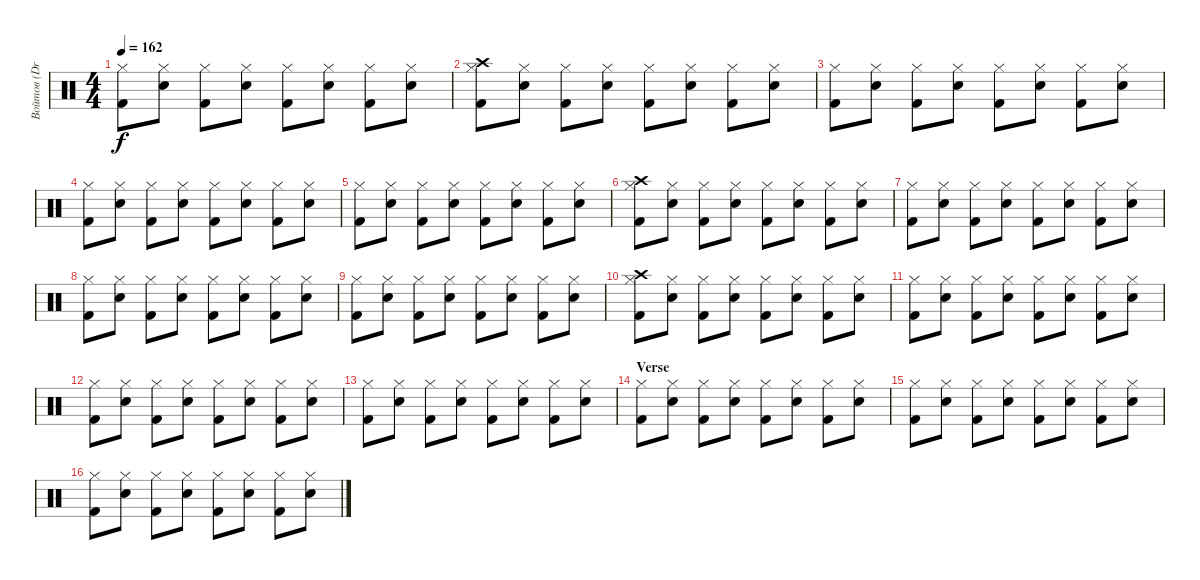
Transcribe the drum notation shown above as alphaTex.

\track ("Войтов (Drums)" "Войтов (Dr") {instrument percussion}
\staff {score}
\articulation defaults
\ts (4 4)
\tempo 162
\clef neutral
\ks c
("Hi-Hat (closed)" "Kick (hit) 2").8{dy f} ("Hi-Hat (closed)" "Electric Snare (hit)").8 ("Hi-Hat (closed)" "Kick (hit) 2").8 ("Hi-Hat (closed)" "Electric Snare (hit)").8 ("Hi-Hat (closed)" "Kick (hit) 2").8 ("Hi-Hat (closed)" "Electric Snare (hit)").8 ("Hi-Hat (closed)" "Kick (hit) 2").8 ("Hi-Hat (closed)" "Electric Snare (hit)").8 |
("Hi-Hat (closed)" "Kick (hit) 2" "Crash high (hit)").8 ("Hi-Hat (closed)" "Electric Snare (hit)").8 ("Hi-Hat (closed)" "Kick (hit) 2").8 ("Hi-Hat (closed)" "Electric Snare (hit)").8 ("Hi-Hat (closed)" "Kick (hit) 2").8 ("Hi-Hat (closed)" "Electric Snare (hit)").8 ("Hi-Hat (closed)" "Kick (hit) 2").8 ("Hi-Hat (closed)" "Electric Snare (hit)").8 |
("Hi-Hat (closed)" "Kick (hit) 2").8 ("Hi-Hat (closed)" "Electric Snare (hit)").8 ("Hi-Hat (closed)" "Kick (hit) 2").8 ("Hi-Hat (closed)" "Electric Snare (hit)").8 ("Hi-Hat (closed)" "Kick (hit) 2").8 ("Hi-Hat (closed)" "Electric Snare (hit)").8 ("Hi-Hat (closed)" "Kick (hit) 2").8 ("Hi-Hat (closed)" "Electric Snare (hit)").8 |
("Hi-Hat (closed)" "Kick (hit) 2").8 ("Hi-Hat (closed)" "Electric Snare (hit)").8 ("Hi-Hat (closed)" "Kick (hit) 2").8 ("Hi-Hat (closed)" "Electric Snare (hit)").8 ("Hi-Hat (closed)" "Kick (hit) 2").8 ("Hi-Hat (closed)" "Electric Snare (hit)").8 ("Hi-Hat (closed)" "Kick (hit) 2").8 ("Hi-Hat (closed)" "Electric Snare (hit)").8 |
("Hi-Hat (closed)" "Kick (hit) 2").8 ("Hi-Hat (closed)" "Electric Snare (hit)").8 ("Hi-Hat (closed)" "Kick (hit) 2").8 ("Hi-Hat (closed)" "Electric Snare (hit)").8 ("Hi-Hat (closed)" "Kick (hit) 2").8 ("Hi-Hat (closed)" "Electric Snare (hit)").8 ("Hi-Hat (closed)" "Kick (hit) 2").8 ("Hi-Hat (closed)" "Electric Snare (hit)").8 |
("Hi-Hat (closed)" "Kick (hit) 2" "Crash high (hit)").8 ("Hi-Hat (closed)" "Electric Snare (hit)").8 ("Hi-Hat (closed)" "Kick (hit) 2").8 ("Hi-Hat (closed)" "Electric Snare (hit)").8 ("Hi-Hat (closed)" "Kick (hit) 2").8 ("Hi-Hat (closed)" "Electric Snare (hit)").8 ("Hi-Hat (closed)" "Kick (hit) 2").8 ("Hi-Hat (closed)" "Electric Snare (hit)").8 |
("Hi-Hat (closed)" "Kick (hit) 2").8 ("Hi-Hat (closed)" "Electric Snare (hit)").8 ("Hi-Hat (closed)" "Kick (hit) 2").8 ("Hi-Hat (closed)" "Electric Snare (hit)").8 ("Hi-Hat (closed)" "Kick (hit) 2").8 ("Hi-Hat (closed)" "Electric Snare (hit)").8 ("Hi-Hat (closed)" "Kick (hit) 2").8 ("Hi-Hat (closed)" "Electric Snare (hit)").8 |
("Hi-Hat (closed)" "Kick (hit) 2").8 ("Hi-Hat (closed)" "Electric Snare (hit)").8 ("Hi-Hat (closed)" "Kick (hit) 2").8 ("Hi-Hat (closed)" "Electric Snare (hit)").8 ("Hi-Hat (closed)" "Kick (hit) 2").8 ("Hi-Hat (closed)" "Electric Snare (hit)").8 ("Hi-Hat (closed)" "Kick (hit) 2").8 ("Hi-Hat (closed)" "Electric Snare (hit)").8 |
("Hi-Hat (closed)" "Kick (hit) 2").8 ("Hi-Hat (closed)" "Electric Snare (hit)").8 ("Hi-Hat (closed)" "Kick (hit) 2").8 ("Hi-Hat (closed)" "Electric Snare (hit)").8 ("Hi-Hat (closed)" "Kick (hit) 2").8 ("Hi-Hat (closed)" "Electric Snare (hit)").8 ("Hi-Hat (closed)" "Kick (hit) 2").8 ("Hi-Hat (closed)" "Electric Snare (hit)").8 |
("Hi-Hat (closed)" "Kick (hit) 2" "Crash high (hit)").8 ("Hi-Hat (closed)" "Electric Snare (hit)").8 ("Hi-Hat (closed)" "Kick (hit) 2").8 ("Hi-Hat (closed)" "Electric Snare (hit)").8 ("Hi-Hat (closed)" "Kick (hit) 2").8 ("Hi-Hat (closed)" "Electric Snare (hit)").8 ("Hi-Hat (closed)" "Kick (hit) 2").8 ("Hi-Hat (closed)" "Electric Snare (hit)").8 |
("Hi-Hat (closed)" "Kick (hit) 2").8 ("Hi-Hat (closed)" "Electric Snare (hit)").8 ("Hi-Hat (closed)" "Kick (hit) 2").8 ("Hi-Hat (closed)" "Electric Snare (hit)").8 ("Hi-Hat (closed)" "Kick (hit) 2").8 ("Hi-Hat (closed)" "Electric Snare (hit)").8 ("Hi-Hat (closed)" "Kick (hit) 2").8 ("Hi-Hat (closed)" "Electric Snare (hit)").8 |
("Hi-Hat (closed)" "Kick (hit) 2").8 ("Hi-Hat (closed)" "Electric Snare (hit)").8 ("Hi-Hat (closed)" "Kick (hit) 2").8 ("Hi-Hat (closed)" "Electric Snare (hit)").8 ("Hi-Hat (closed)" "Kick (hit) 2").8 ("Hi-Hat (closed)" "Electric Snare (hit)").8 ("Hi-Hat (closed)" "Kick (hit) 2").8 ("Hi-Hat (closed)" "Electric Snare (hit)").8 |
("Hi-Hat (closed)" "Kick (hit) 2").8 ("Hi-Hat (closed)" "Electric Snare (hit)").8 ("Hi-Hat (closed)" "Kick (hit) 2").8 ("Hi-Hat (closed)" "Electric Snare (hit)").8 ("Hi-Hat (closed)" "Kick (hit) 2").8 ("Hi-Hat (closed)" "Electric Snare (hit)").8 ("Hi-Hat (closed)" "Kick (hit) 2").8 ("Hi-Hat (closed)" "Electric Snare (hit)").8 |
\section ("" "Verse")
("Hi-Hat (closed)" "Kick (hit) 2").8 ("Hi-Hat (closed)" "Electric Snare (hit)").8 ("Hi-Hat (closed)" "Kick (hit) 2").8 ("Hi-Hat (closed)" "Electric Snare (hit)").8 ("Hi-Hat (closed)" "Kick (hit) 2").8 ("Hi-Hat (closed)" "Electric Snare (hit)").8 ("Hi-Hat (closed)" "Kick (hit) 2").8 ("Hi-Hat (closed)" "Electric Snare (hit)").8 |
("Hi-Hat (closed)" "Kick (hit) 2").8 ("Hi-Hat (closed)" "Electric Snare (hit)").8 ("Hi-Hat (closed)" "Kick (hit) 2").8 ("Hi-Hat (closed)" "Electric Snare (hit)").8 ("Hi-Hat (closed)" "Kick (hit) 2").8 ("Hi-Hat (closed)" "Electric Snare (hit)").8 ("Hi-Hat (closed)" "Kick (hit) 2").8 ("Hi-Hat (closed)" "Electric Snare (hit)").8 |
("Hi-Hat (closed)" "Kick (hit) 2").8 ("Hi-Hat (closed)" "Electric Snare (hit)").8 ("Hi-Hat (closed)" "Kick (hit) 2").8 ("Hi-Hat (closed)" "Electric Snare (hit)").8 ("Hi-Hat (closed)" "Kick (hit) 2").8 ("Hi-Hat (closed)" "Electric Snare (hit)").8 ("Hi-Hat (closed)" "Kick (hit) 2").8 ("Hi-Hat (closed)" "Electric Snare (hit)").8
